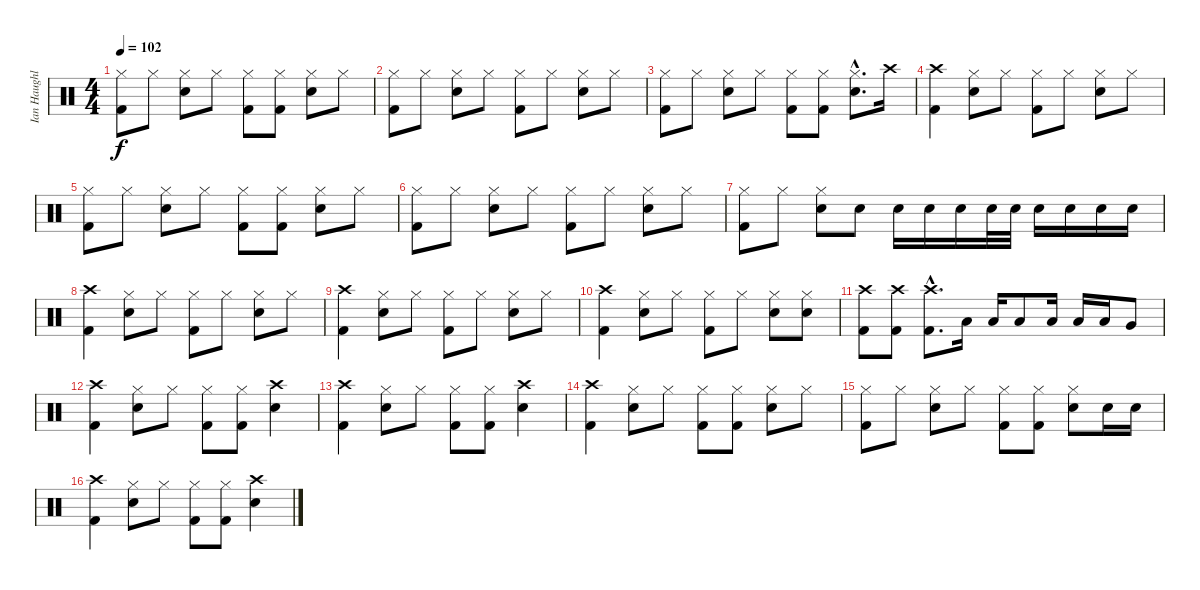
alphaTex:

\track ("Ian Haughland" "Ian Haughl") {instrument percussion}
\staff {score}
\articulation defaults
\ts (4 4)
\tempo 102
\clef neutral
\ks c
("Kick (hit) 2" "Hi-Hat (closed)").8{dy f} "Hi-Hat (closed)".8 ("Hi-Hat (closed)" "Snare (hit) 2").8 "Hi-Hat (closed)".8 ("Kick (hit) 2" "Hi-Hat (closed)").8 ("Kick (hit) 2" "Hi-Hat (closed)").8 ("Hi-Hat (closed)" "Snare (hit) 2").8 "Hi-Hat (closed)".8 |
("Kick (hit) 2" "Hi-Hat (closed)").8 "Hi-Hat (closed)".8 ("Hi-Hat (closed)" "Snare (hit) 2").8 "Hi-Hat (closed)".8 ("Kick (hit) 2" "Hi-Hat (closed)").8 "Hi-Hat (closed)".8 ("Hi-Hat (closed)" "Snare (hit) 2").8 "Hi-Hat (closed)".8 |
("Kick (hit) 2" "Hi-Hat (closed)").8 "Hi-Hat (closed)".8 ("Hi-Hat (closed)" "Snare (hit) 2").8 "Hi-Hat (closed)".8 ("Kick (hit) 2" "Hi-Hat (closed)").8 ("Kick (hit) 2" "Hi-Hat (closed)").8 ("Hi-Hat (closed)"{hac} "Snare (hit) 2"{hac}).8{d} "Crash high (hit)".16 |
("Kick (hit) 2" "Crash high (hit)").4 ("Hi-Hat (closed)" "Snare (hit) 2").8 "Hi-Hat (closed)".8 ("Hi-Hat (closed)" "Kick (hit) 2").8 "Hi-Hat (closed)".8 ("Hi-Hat (closed)" "Snare (hit) 2").8 "Hi-Hat (closed)".8 |
("Hi-Hat (closed)" "Kick (hit) 2").8 "Hi-Hat (closed)".8 ("Hi-Hat (closed)" "Snare (hit) 2").8 "Hi-Hat (closed)".8 ("Hi-Hat (closed)" "Kick (hit) 2").8 ("Hi-Hat (closed)" "Kick (hit) 2").8 ("Hi-Hat (closed)" "Snare (hit) 2").8 "Hi-Hat (closed)".8 |
("Hi-Hat (closed)" "Kick (hit) 2").8 "Hi-Hat (closed)".8 ("Hi-Hat (closed)" "Snare (hit) 2").8 "Hi-Hat (closed)".8 ("Hi-Hat (closed)" "Kick (hit) 2").8 "Hi-Hat (closed)".8 ("Hi-Hat (closed)" "Snare (hit) 2").8 "Hi-Hat (closed)".8 |
("Hi-Hat (closed)" "Kick (hit) 2").8 "Hi-Hat (closed)".8 ("Hi-Hat (closed)" "Snare (hit) 2").8 "Snare (hit) 2".8 "Snare (hit) 2".16 "Snare (hit) 2".16 "Snare (hit) 2".16 "Snare (hit) 2".32 "Snare (hit) 2".32 "Snare (hit) 2".16 "Snare (hit) 2".16 "Snare (hit) 2".16 "Snare (hit) 2".16 |
("Crash high (hit)" "Kick (hit) 2").4 ("Hi-Hat (closed)" "Snare (hit) 2").8 "Hi-Hat (closed)".8 ("Hi-Hat (closed)" "Kick (hit) 2").8 "Hi-Hat (closed)".8 ("Hi-Hat (closed)" "Snare (hit) 2").8 "Hi-Hat (closed)".8 |
("Crash high (hit)" "Kick (hit) 2").4 ("Hi-Hat (closed)" "Snare (hit) 2").8 "Hi-Hat (closed)".8 ("Hi-Hat (closed)" "Kick (hit) 2").8 "Hi-Hat (closed)".8 ("Hi-Hat (closed)" "Snare (hit) 2").8 "Hi-Hat (closed)".8 |
("Crash high (hit)" "Kick (hit) 2").4 ("Hi-Hat (closed)" "Snare (hit) 2").8 "Hi-Hat (closed)".8 ("Hi-Hat (closed)" "Kick (hit) 2").8 "Hi-Hat (closed)".8 ("Hi-Hat (closed)" "Snare (hit) 2").8 ("Hi-Hat (closed)" "Snare (hit) 2").8 |
("Crash high (hit)" "Kick (hit) 2").8 ("Crash high (hit)" "Kick (hit) 2").8 ("Crash high (hit)"{hac} "Kick (hit) 2"{hac}).8{d} "Low Tom (hit)".16 "Low Tom (hit)".16 "Low Tom (hit)".8 "Low Tom (hit)".16 "Low Tom (hit)".16 "Low Tom (hit)".16 "Very Low Tom (hit)".8 |
("Crash high (hit)" "Kick (hit) 2").4 ("Hi-Hat (closed)" "Snare (hit) 2").8 "Hi-Hat (closed)".8 ("Hi-Hat (closed)" "Kick (hit) 2").8 ("Hi-Hat (closed)" "Kick (hit) 2").8 ("Crash high (hit)" "Snare (hit) 2").4 |
("Crash high (hit)" "Kick (hit) 2").4 ("Hi-Hat (closed)" "Snare (hit) 2").8 "Hi-Hat (closed)".8 ("Hi-Hat (closed)" "Kick (hit) 2").8 ("Hi-Hat (closed)" "Kick (hit) 2").8 ("Crash high (hit)" "Snare (hit) 2").4 |
("Crash high (hit)" "Kick (hit) 2").4 ("Hi-Hat (closed)" "Snare (hit) 2").8 "Hi-Hat (closed)".8 ("Hi-Hat (closed)" "Kick (hit) 2").8 ("Hi-Hat (closed)" "Kick (hit) 2").8 ("Hi-Hat (closed)" "Snare (hit) 2").8 "Hi-Hat (closed)".8 |
("Hi-Hat (closed)" "Kick (hit) 2").8 "Hi-Hat (closed)".8 ("Hi-Hat (closed)" "Snare (hit) 2").8 "Hi-Hat (closed)".8 ("Hi-Hat (closed)" "Kick (hit) 2").8 ("Hi-Hat (closed)" "Kick (hit) 2").8 ("Hi-Hat (closed)" "Snare (hit) 2").8 "Snare (hit) 2".16 "Snare (hit) 2".16 |
("Crash high (hit)" "Kick (hit) 2").4 ("Hi-Hat (closed)" "Snare (hit) 2").8 "Hi-Hat (closed)".8 ("Hi-Hat (closed)" "Kick (hit) 2").8 ("Hi-Hat (closed)" "Kick (hit) 2").8 ("Crash high (hit)" "Snare (hit) 2").4
